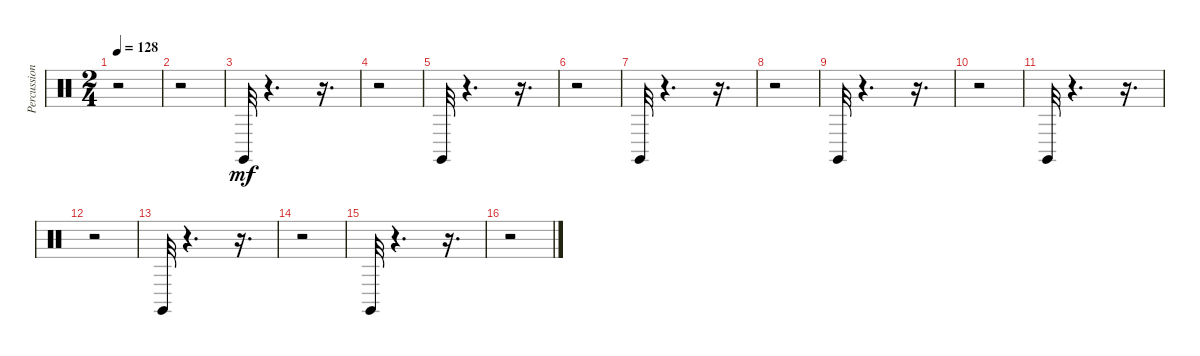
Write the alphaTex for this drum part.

\track ("Percussion" "Percussion") {instrument percussion}
\staff {score}
\articulation defaults
\ts (2 4)
\tempo 128
\clef neutral
\ks c
r.2{dy mp} |
r.2 |
"Claves (hit)".32{dy mf} r.4{d} r.16{d} |
r.2 |
"Claves (hit)".32 r.4{d} r.16{d} |
r.2 |
"Claves (hit)".32 r.4{d} r.16{d} |
r.2 |
"Claves (hit)".32 r.4{d} r.16{d} |
r.2 |
"Claves (hit)".32 r.4{d} r.16{d} |
r.2 |
"Claves (hit)".32 r.4{d} r.16{d} |
r.2 |
"Claves (hit)".32 r.4{d} r.16{d} |
r.2
